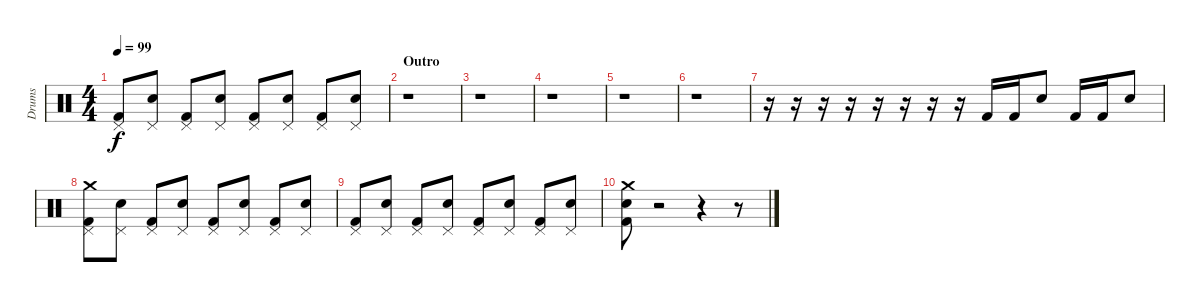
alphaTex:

\track ("Drums" "Drums") {instrument percussion}
\staff {score}
\articulation defaults
\ts (4 4)
\tempo 99
\clef neutral
\ks c
("Pedal Hi-Hat (hit)" "Kick (hit) 2").8{dy f} ("Pedal Hi-Hat (hit)" "Snare (hit) 2").8 ("Pedal Hi-Hat (hit)" "Kick (hit) 2").8 ("Pedal Hi-Hat (hit)" "Snare (hit) 2").8 ("Pedal Hi-Hat (hit)" "Kick (hit) 2").8 ("Pedal Hi-Hat (hit)" "Snare (hit) 2").8 ("Pedal Hi-Hat (hit)" "Kick (hit) 2").8 ("Pedal Hi-Hat (hit)" "Snare (hit) 2").8 |
\section ("" "Outro")
r.1 |
r.1 |
r.1 |
r.1 |
r.1 |
r.16 r.16 r.16 r.16 r.16 r.16 r.16 r.16 "Kick (hit) 2".16 "Kick (hit) 2".16 "Snare (hit) 2".8 "Kick (hit) 2".16 "Kick (hit) 2".16 "Snare (hit) 2".8 |
("Pedal Hi-Hat (hit)" "Crash medium (hit)" "Kick (hit) 2").8 ("Pedal Hi-Hat (hit)" "Snare (hit) 2").8 ("Pedal Hi-Hat (hit)" "Kick (hit) 2").8 ("Pedal Hi-Hat (hit)" "Snare (hit) 2").8 ("Pedal Hi-Hat (hit)" "Kick (hit) 2").8 ("Pedal Hi-Hat (hit)" "Snare (hit) 2").8 ("Pedal Hi-Hat (hit)" "Kick (hit) 2").8 ("Pedal Hi-Hat (hit)" "Snare (hit) 2").8 |
("Pedal Hi-Hat (hit)" "Kick (hit) 2").8 ("Pedal Hi-Hat (hit)" "Snare (hit) 2").8 ("Pedal Hi-Hat (hit)" "Kick (hit) 2").8 ("Pedal Hi-Hat (hit)" "Snare (hit) 2").8 ("Pedal Hi-Hat (hit)" "Kick (hit) 2").8 ("Pedal Hi-Hat (hit)" "Snare (hit) 2").8 ("Pedal Hi-Hat (hit)" "Kick (hit) 2").8 ("Pedal Hi-Hat (hit)" "Snare (hit) 2").8 |
("Crash medium (hit)" "Snare (hit) 2" "Kick (hit) 2").8 r.2 r.4 r.8
